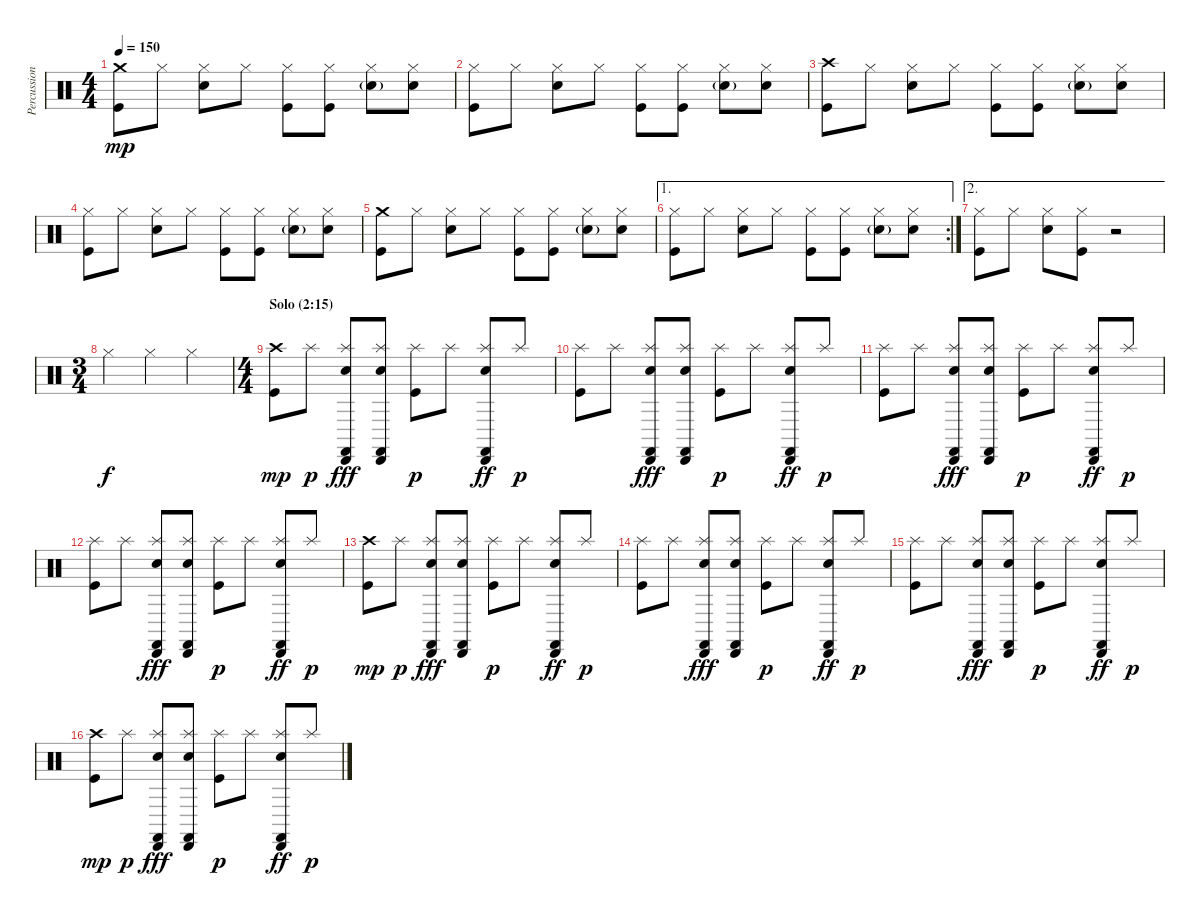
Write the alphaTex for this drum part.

\track ("Percussion" "Percussion") {instrument percussion}
\staff {score}
\articulation defaults
\ts (4 4)
\tempo 150
\clef neutral
\ks c
("Crash medium (hit)" "Kick (hit)").8{dy mp} "Hi-Hat (closed)".8 ("Hi-Hat (closed)" "Electric Snare (hit)").8 "Hi-Hat (closed)".8 ("Hi-Hat (closed)" "Kick (hit)").8 ("Hi-Hat (closed)" "Kick (hit)").8 ("Hi-Hat (closed)" "Electric Snare (hit)"{g}).8 ("Hi-Hat (closed)" "Electric Snare (hit)").8 |
("Hi-Hat (closed)" "Kick (hit)").8 "Hi-Hat (closed)".8 ("Hi-Hat (closed)" "Electric Snare (hit)").8 "Hi-Hat (closed)".8 ("Hi-Hat (closed)" "Kick (hit)").8 ("Hi-Hat (closed)" "Kick (hit)").8 ("Hi-Hat (closed)" "Electric Snare (hit)"{g}).8 ("Hi-Hat (closed)" "Electric Snare (hit)").8 |
("Crash high (hit)" "Kick (hit)").8 "Hi-Hat (closed)".8 ("Hi-Hat (closed)" "Electric Snare (hit)").8 "Hi-Hat (closed)".8 ("Hi-Hat (closed)" "Kick (hit)").8 ("Hi-Hat (closed)" "Kick (hit)").8 ("Hi-Hat (closed)" "Electric Snare (hit)"{g}).8 ("Hi-Hat (closed)" "Electric Snare (hit)").8 |
("Hi-Hat (closed)" "Kick (hit)").8 "Hi-Hat (closed)".8 ("Hi-Hat (closed)" "Electric Snare (hit)").8 "Hi-Hat (closed)".8 ("Hi-Hat (closed)" "Kick (hit)").8 ("Hi-Hat (closed)" "Kick (hit)").8 ("Hi-Hat (closed)" "Electric Snare (hit)"{g}).8 ("Hi-Hat (closed)" "Electric Snare (hit)").8 |
("Crash medium (hit)" "Kick (hit)").8 "Hi-Hat (closed)".8 ("Hi-Hat (closed)" "Electric Snare (hit)").8 "Hi-Hat (closed)".8 ("Hi-Hat (closed)" "Kick (hit)").8 ("Hi-Hat (closed)" "Kick (hit)").8 ("Hi-Hat (closed)" "Electric Snare (hit)"{g}).8 ("Hi-Hat (closed)" "Electric Snare (hit)").8 |
\ae 1
\rc 2
("Hi-Hat (closed)" "Kick (hit)").8 "Hi-Hat (closed)".8 ("Hi-Hat (closed)" "Electric Snare (hit)").8 "Hi-Hat (closed)".8 ("Hi-Hat (closed)" "Kick (hit)").8 ("Hi-Hat (closed)" "Kick (hit)").8 ("Hi-Hat (closed)" "Electric Snare (hit)"{g}).8 ("Hi-Hat (closed)" "Electric Snare (hit)").8 |
\ae 2
("Hi-Hat (closed)" "Kick (hit)").8 "Hi-Hat (closed)".8 ("Hi-Hat (closed)" "Electric Snare (hit)").8 ("Hi-Hat (closed)" "Kick (hit)").8 r.2 |
\ts (3 4)
"Hi-Hat (closed)".4{dy f} "Hi-Hat (closed)".4 "Hi-Hat (closed)".4 |
\ts (4 4)
\section ("" "Solo (2:15)")
("Crash high (hit)" "Kick (hit)").8{dy mp} "Splash (hit)".8{dy p} ("Splash (hit)" "Castanets (hit)" "Electric Snare (hit)" "Cabasa (hit)").8{dy fff} ("Splash (hit)" "Castanets (hit)" "Electric Snare (hit)" "Cabasa (hit)").8 ("Splash (hit)" "Kick (hit)").8{dy p} "Splash (hit)".8 ("Splash (hit)" "Castanets (hit)" "Electric Snare (hit)" "Cabasa (hit)").8{dy ff} "Splash (hit)".8{dy p} |
("Splash (hit)" "Kick (hit)").8 "Splash (hit)".8 ("Splash (hit)" "Castanets (hit)" "Electric Snare (hit)" "Cabasa (hit)").8{dy fff} ("Splash (hit)" "Castanets (hit)" "Electric Snare (hit)" "Cabasa (hit)").8 ("Splash (hit)" "Kick (hit)").8{dy p} "Splash (hit)".8 ("Splash (hit)" "Castanets (hit)" "Electric Snare (hit)" "Cabasa (hit)").8{dy ff} "Splash (hit)".8{dy p} |
("Splash (hit)" "Kick (hit)").8 "Splash (hit)".8 ("Splash (hit)" "Castanets (hit)" "Electric Snare (hit)" "Cabasa (hit)").8{dy fff} ("Splash (hit)" "Castanets (hit)" "Electric Snare (hit)" "Cabasa (hit)").8 ("Splash (hit)" "Kick (hit)").8{dy p} "Splash (hit)".8 ("Splash (hit)" "Castanets (hit)" "Electric Snare (hit)" "Cabasa (hit)").8{dy ff} "Splash (hit)".8{dy p} |
("Splash (hit)" "Kick (hit)").8 "Splash (hit)".8 ("Splash (hit)" "Castanets (hit)" "Electric Snare (hit)" "Cabasa (hit)").8{dy fff} ("Splash (hit)" "Castanets (hit)" "Electric Snare (hit)" "Cabasa (hit)").8 ("Splash (hit)" "Kick (hit)").8{dy p} "Splash (hit)".8 ("Splash (hit)" "Castanets (hit)" "Electric Snare (hit)" "Cabasa (hit)").8{dy ff} "Splash (hit)".8{dy p} |
("Crash high (hit)" "Kick (hit)").8{dy mp} "Splash (hit)".8{dy p} ("Splash (hit)" "Castanets (hit)" "Electric Snare (hit)" "Cabasa (hit)").8{dy fff} ("Splash (hit)" "Castanets (hit)" "Electric Snare (hit)" "Cabasa (hit)").8 ("Splash (hit)" "Kick (hit)").8{dy p} "Splash (hit)".8 ("Splash (hit)" "Castanets (hit)" "Electric Snare (hit)" "Cabasa (hit)").8{dy ff} "Splash (hit)".8{dy p} |
("Splash (hit)" "Kick (hit)").8 "Splash (hit)".8 ("Splash (hit)" "Castanets (hit)" "Electric Snare (hit)" "Cabasa (hit)").8{dy fff} ("Splash (hit)" "Castanets (hit)" "Electric Snare (hit)" "Cabasa (hit)").8 ("Splash (hit)" "Kick (hit)").8{dy p} "Splash (hit)".8 ("Splash (hit)" "Castanets (hit)" "Electric Snare (hit)" "Cabasa (hit)").8{dy ff} "Splash (hit)".8{dy p} |
("Splash (hit)" "Kick (hit)").8 "Splash (hit)".8 ("Splash (hit)" "Castanets (hit)" "Electric Snare (hit)" "Cabasa (hit)").8{dy fff} ("Splash (hit)" "Castanets (hit)" "Electric Snare (hit)" "Cabasa (hit)").8 ("Splash (hit)" "Kick (hit)").8{dy p} "Splash (hit)".8 ("Splash (hit)" "Castanets (hit)" "Electric Snare (hit)" "Cabasa (hit)").8{dy ff} "Splash (hit)".8{dy p} |
("Crash high (hit)" "Kick (hit)").8{dy mp} "Splash (hit)".8{dy p} ("Splash (hit)" "Castanets (hit)" "Electric Snare (hit)" "Cabasa (hit)").8{dy fff} ("Splash (hit)" "Castanets (hit)" "Electric Snare (hit)" "Cabasa (hit)").8 ("Splash (hit)" "Kick (hit)").8{dy p} "Splash (hit)".8 ("Splash (hit)" "Castanets (hit)" "Electric Snare (hit)" "Cabasa (hit)").8{dy ff} "Splash (hit)".8{dy p}
